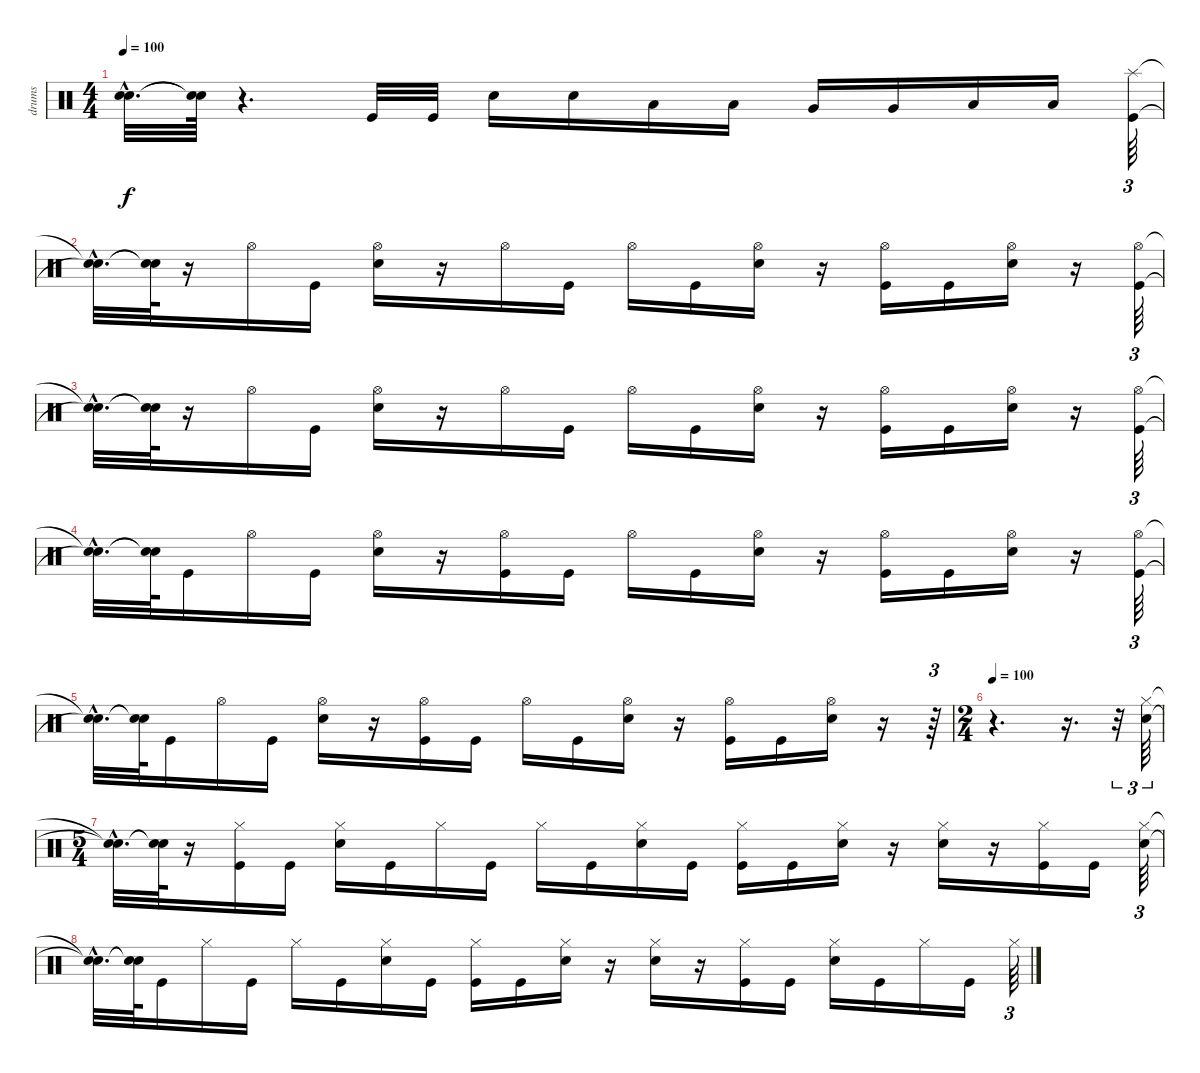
\track ("drums" "drums") {instrument percussion}
\staff {score}
\articulation defaults
\ts (4 4)
\tempo 100
\clef neutral
\ks c
("Snare (hit)"{hac t} "Snare (hit)"{hac t}).32{d dy f} ("Snare (hit)"{t} "Snare (hit)"{t}).64 r.4{d} "Kick (hit)".32 "Kick (hit)".32 "Electric Snare (hit)".16 "Electric Snare (hit)".16 "Low Tom (hit)".16 "Low Tom (hit)".16 "Very Low Tom (hit)".16 "Very Low Tom (hit)".16 "Low Floor Tom (hit)".16 "Low Floor Tom (hit)".16 ("Splash (hit)" "Kick (hit)").64{tu (3 2)} |
("Snare (hit)"{hac t} "Snare (hit)"{hac t}).32{d} ("Snare (hit)"{t} "Snare (hit)"{t}).64 r.16 "Hi-Hat (open)".16 "Kick (hit)".16 ("Electric Snare (hit)" "Hi-Hat (open)").16 r.16 "Hi-Hat (open)".16 "Kick (hit)".16 "Hi-Hat (open)".16 "Kick (hit)".16 ("Hi-Hat (open)" "Electric Snare (hit)").16 r.16 ("Kick (hit)" "Hi-Hat (open)").16 "Kick (hit)".16 ("Hi-Hat (open)" "Electric Snare (hit)").16 r.16 ("Kick (hit)" "Hi-Hat (open)").64{tu (3 2)} |
("Snare (hit)"{hac t} "Snare (hit)"{hac t}).32{d} ("Snare (hit)"{t} "Snare (hit)"{t}).64 r.16 "Hi-Hat (open)".16 "Kick (hit)".16 ("Hi-Hat (open)" "Electric Snare (hit)").16 r.16 "Hi-Hat (open)".16 "Kick (hit)".16 "Hi-Hat (open)".16 "Kick (hit)".16 ("Hi-Hat (open)" "Electric Snare (hit)").16 r.16 ("Hi-Hat (open)" "Kick (hit)").16 "Kick (hit)".16 ("Hi-Hat (open)" "Electric Snare (hit)").16 r.16 ("Hi-Hat (open)" "Kick (hit)").64{tu (3 2)} |
("Snare (hit)"{hac t} "Snare (hit)"{hac t}).32{d} ("Snare (hit)"{t} "Snare (hit)"{t}).64 "Kick (hit)".16 "Hi-Hat (open)".16 "Kick (hit)".16 ("Electric Snare (hit)" "Hi-Hat (open)").16 r.16 ("Hi-Hat (open)" "Kick (hit)").16 "Kick (hit)".16 "Hi-Hat (open)".16 "Kick (hit)".16 ("Hi-Hat (open)" "Electric Snare (hit)").16 r.16 ("Kick (hit)" "Hi-Hat (open)").16 "Kick (hit)".16 ("Hi-Hat (open)" "Electric Snare (hit)").16 r.16 ("Kick (hit)" "Hi-Hat (open)").64{tu (3 2)} |
("Snare (hit)"{hac t} "Snare (hit)"{hac t}).32{d} ("Snare (hit)"{t} "Snare (hit)"{t}).64 "Kick (hit)".16 "Hi-Hat (open)".16 "Kick (hit)".16 ("Hi-Hat (open)" "Electric Snare (hit)").16 r.16 ("Hi-Hat (open)" "Kick (hit)").16 "Kick (hit)".16 "Hi-Hat (open)".16 "Kick (hit)".16 ("Hi-Hat (open)" "Electric Snare (hit)").16 r.16 ("Hi-Hat (open)" "Kick (hit)").16 "Kick (hit)".16 ("Hi-Hat (open)" "Electric Snare (hit)").16 r.16 r.64{tu (3 2)} |
\ts (2 4)
\tempo 100
r.4{d} r.16{d} r.32{tu (3 2)} ("Hi-Hat (closed)" "Electric Snare (hit)").64{tu (3 2)} |
\ts (5 4)
("Snare (hit)"{hac t} "Snare (hit)"{hac t}).32{d} ("Snare (hit)"{t} "Snare (hit)"{t}).64 r.16 ("Hi-Hat (closed)" "Kick (hit)").16 "Kick (hit)".16 ("Hi-Hat (closed)" "Electric Snare (hit)").16 "Kick (hit)".16 "Hi-Hat (closed)".16 "Kick (hit)".16 "Hi-Hat (closed)".16 "Kick (hit)".16 ("Hi-Hat (closed)" "Electric Snare (hit)").16 "Kick (hit)".16 ("Hi-Hat (closed)" "Kick (hit)").16 "Kick (hit)".16 ("Hi-Hat (closed)" "Electric Snare (hit)").16 r.16 ("Hi-Hat (closed)" "Electric Snare (hit)").16 r.16 ("Hi-Hat (closed)" "Kick (hit)").16 "Kick (hit)".16 ("Electric Snare (hit)" "Hi-Hat (closed)").64{tu (3 2)} |
("Snare (hit)"{hac t} "Snare (hit)"{hac t}).32{d} ("Snare (hit)"{t} "Snare (hit)"{t}).64 "Kick (hit)".16 "Hi-Hat (closed)".16 "Kick (hit)".16 "Hi-Hat (closed)".16 "Kick (hit)".16 ("Electric Snare (hit)" "Hi-Hat (closed)").16 "Kick (hit)".16 ("Kick (hit)" "Hi-Hat (closed)").16 "Kick (hit)".16 ("Electric Snare (hit)" "Hi-Hat (closed)").16 r.16 ("Hi-Hat (closed)" "Electric Snare (hit)").16 r.16 ("Hi-Hat (closed)" "Kick (hit)").16 "Kick (hit)".16 ("Electric Snare (hit)" "Hi-Hat (closed)").16 "Kick (hit)".16 "Hi-Hat (closed)".16 "Kick (hit)".16 "Hi-Hat (closed)".64{tu (3 2)}
